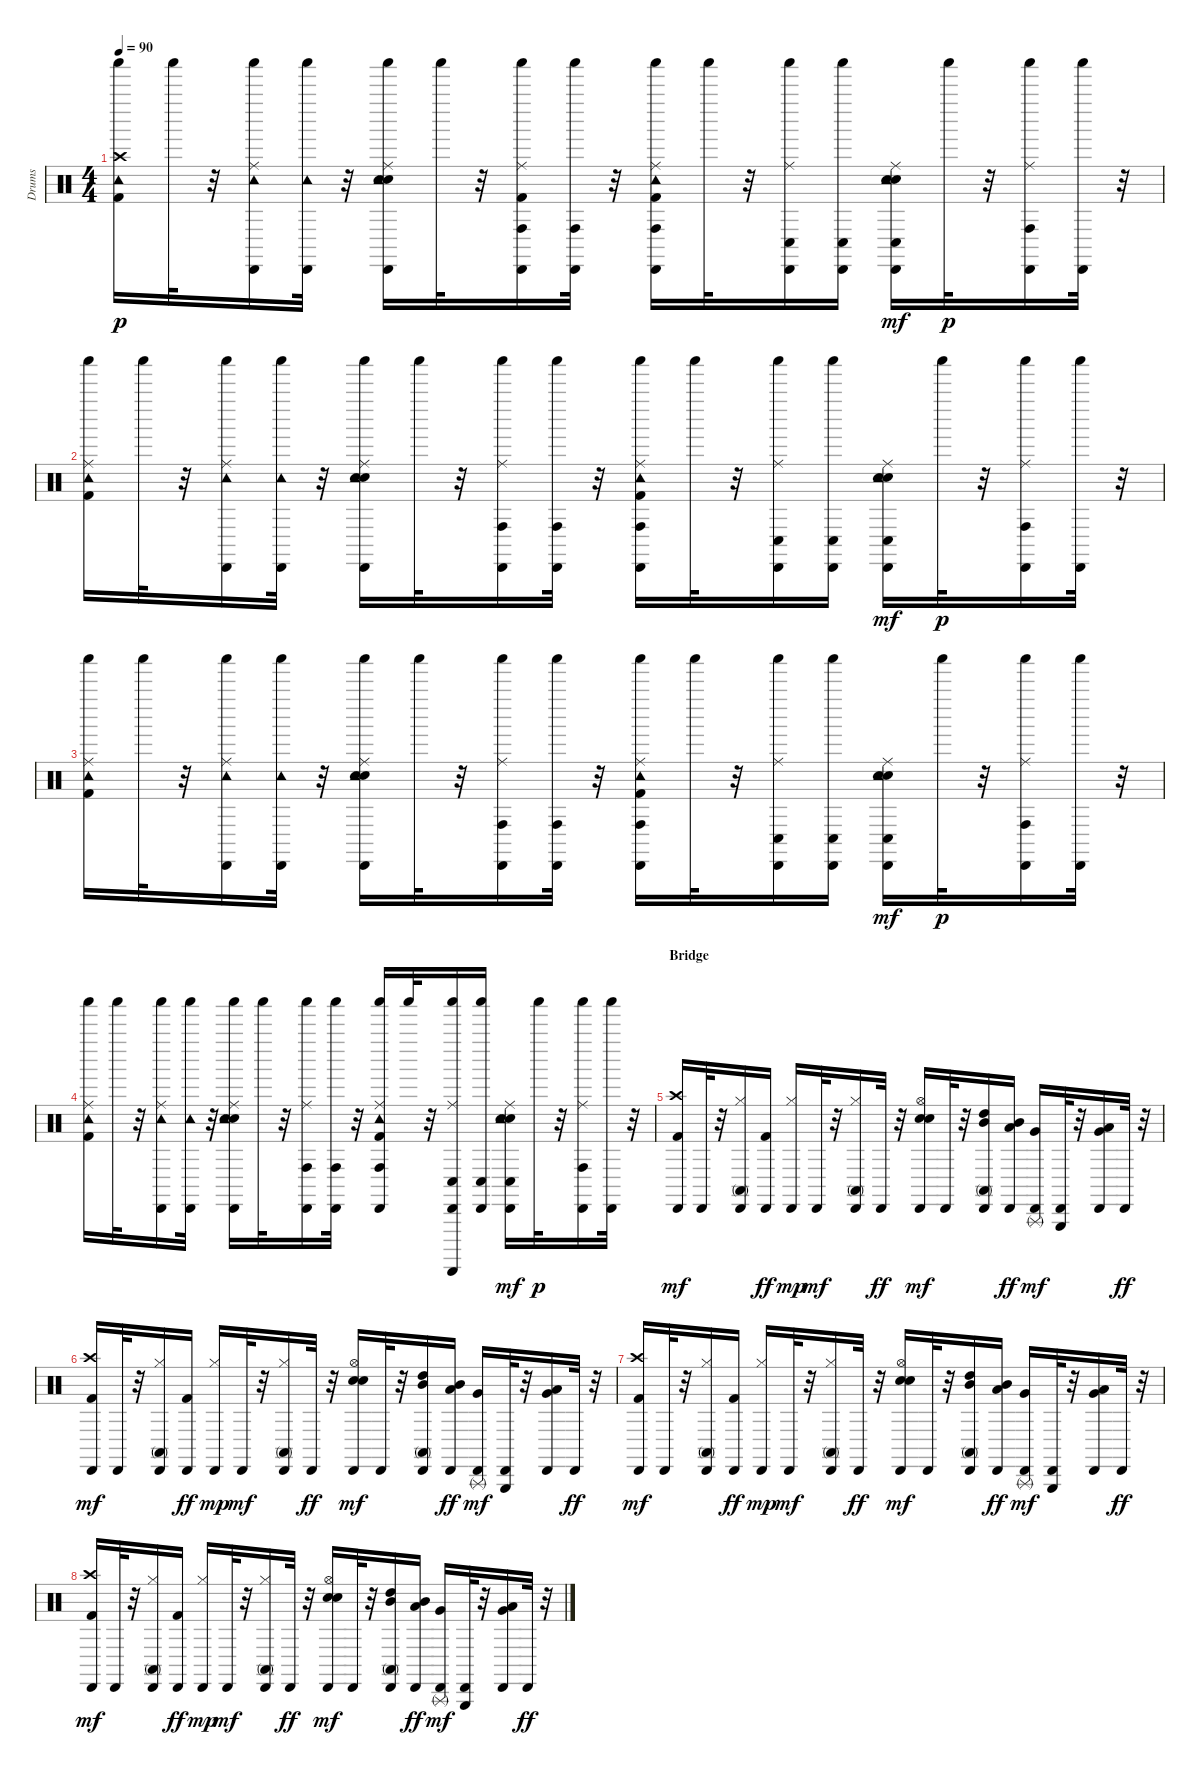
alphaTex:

\track ("Drums" "Drums") {instrument percussion}
\staff {score}
\articulation defaults
\ts (4 4)
\tempo 90
\clef neutral
\ks c
("Crash high (hit)" "Kick (hit) 2" "Tambourine (hit)" "Shaker (hit)").16{dy p} "Shaker (hit)".32 r.32 ("Ride (middle)" "Tambourine (hit)" "Cabasa (hit)" "Shaker (hit)").16 ("Tambourine (hit)" "Cabasa (hit)" "Shaker (hit)").32 r.32 ("Electric Snare (hit)" "Ride (middle)" "Snare (hit) 2" "Tambourine (hit)" "Cabasa (hit)" "Shaker (hit)").16 "Shaker (hit)".32 r.32 ("Ride (middle)" "Kick (hit) 2" "Cabasa (hit)" "Conga high (hit)" "Shaker (hit)").16 ("Cabasa (hit)" "Conga high (hit)" "Shaker (hit)").32 r.32 ("Ride (middle)" "Kick (hit) 2" "Cabasa (hit)" "Conga high (hit)" "Tambourine (hit)" "Shaker (hit)").16 "Shaker (hit)".32 r.32 ("Ride (middle)" "Cabasa (hit)" "Conga low (hit)" "Shaker (hit)").16 ("Cabasa (hit)" "Conga low (hit)" "Shaker (hit)").16 ("Electric Snare (hit)" "Ride (middle)" "Snare (hit) 2" "Cabasa (hit)" "Conga low (hit)" "Tambourine (hit)").16{dy mf} "Shaker (hit)".32{dy p} r.32 ("Ride (middle)" "Cabasa (hit)" "Conga high (hit)" "Shaker (hit)").16 ("Cabasa (hit)" "Shaker (hit)").32 r.32 |
("Ride (middle)" "Kick (hit) 2" "Tambourine (hit)" "Shaker (hit)").16 "Shaker (hit)".32 r.32 ("Ride (middle)" "Tambourine (hit)" "Cabasa (hit)" "Shaker (hit)").16 ("Tambourine (hit)" "Cabasa (hit)" "Shaker (hit)").32 r.32 ("Electric Snare (hit)" "Ride (middle)" "Snare (hit) 2" "Tambourine (hit)" "Cabasa (hit)" "Shaker (hit)").16 "Shaker (hit)".32 r.32 ("Ride (middle)" "Cabasa (hit)" "Conga high (hit)" "Shaker (hit)").16 ("Cabasa (hit)" "Conga high (hit)" "Shaker (hit)").32 r.32 ("Ride (middle)" "Kick (hit) 2" "Cabasa (hit)" "Conga high (hit)" "Tambourine (hit)" "Shaker (hit)").16 "Shaker (hit)".32 r.32 ("Ride (middle)" "Cabasa (hit)" "Conga low (hit)" "Shaker (hit)").16 ("Cabasa (hit)" "Conga low (hit)" "Shaker (hit)").16 ("Electric Snare (hit)" "Ride (middle)" "Snare (hit) 2" "Cabasa (hit)" "Conga low (hit)" "Tambourine (hit)").16{dy mf} "Shaker (hit)".32{dy p} r.32 ("Ride (middle)" "Cabasa (hit)" "Conga high (hit)" "Shaker (hit)").16 ("Cabasa (hit)" "Shaker (hit)").32 r.32 |
("Ride (middle)" "Kick (hit) 2" "Tambourine (hit)" "Shaker (hit)").16 "Shaker (hit)".32 r.32 ("Ride (middle)" "Tambourine (hit)" "Cabasa (hit)" "Shaker (hit)").16 ("Tambourine (hit)" "Cabasa (hit)" "Shaker (hit)").32 r.32 ("Electric Snare (hit)" "Ride (middle)" "Snare (hit) 2" "Tambourine (hit)" "Cabasa (hit)" "Shaker (hit)").16 "Shaker (hit)".32 r.32 ("Ride (middle)" "Cabasa (hit)" "Conga high (hit)" "Shaker (hit)").16 ("Cabasa (hit)" "Conga high (hit)" "Shaker (hit)").32 r.32 ("Ride (middle)" "Kick (hit) 2" "Cabasa (hit)" "Conga high (hit)" "Tambourine (hit)" "Shaker (hit)").16 "Shaker (hit)".32 r.32 ("Ride (middle)" "Cabasa (hit)" "Conga low (hit)" "Shaker (hit)").16 ("Cabasa (hit)" "Conga low (hit)" "Shaker (hit)").16 ("Electric Snare (hit)" "Ride (middle)" "Snare (hit) 2" "Cabasa (hit)" "Conga low (hit)" "Tambourine (hit)").16{dy mf} "Shaker (hit)".32{dy p} r.32 ("Ride (middle)" "Cabasa (hit)" "Conga high (hit)" "Shaker (hit)").16 ("Cabasa (hit)" "Shaker (hit)").32 r.32 |
("Ride (middle)" "Kick (hit) 2" "Tambourine (hit)" "Shaker (hit)").16 "Shaker (hit)".32 r.32 ("Ride (middle)" "Tambourine (hit)" "Cabasa (hit)" "Shaker (hit)").16 ("Tambourine (hit)" "Cabasa (hit)" "Shaker (hit)").32 r.32 ("Electric Snare (hit)" "Ride (middle)" "Snare (hit) 2" "Tambourine (hit)" "Cabasa (hit)" "Shaker (hit)").16 "Shaker (hit)".32 r.32 ("Ride (middle)" "Cabasa (hit)" "Conga high (hit)" "Shaker (hit)").16 ("Cabasa (hit)" "Conga high (hit)" "Shaker (hit)").32 r.32 ("Ride (middle)" "Kick (hit) 2" "Cabasa (hit)" "Conga high (hit)" "Tambourine (hit)" "Shaker (hit)").16 "Shaker (hit)".32 r.32 ("Ride (middle)" "Cabasa (hit)" "Conga low (hit)" "Shaker (hit)" "Guiro (scrap-return)").16 ("Cabasa (hit)" "Conga low (hit)" "Shaker (hit)").16 ("Electric Snare (hit)" "Ride (middle)" "Snare (hit) 2" "Cabasa (hit)" "Conga low (hit)" "Tambourine (hit)").16{dy mf} "Shaker (hit)".32{dy p} r.32 ("Ride (middle)" "Cabasa (hit)" "Conga high (hit)" "Shaker (hit)").16 ("Cabasa (hit)" "Shaker (hit)").32 r.32 |
\section ("" "Bridge")
("Crash high (hit)" "Kick (hit) 2" "Cabasa (hit)").16{dy mf} "Cabasa (hit)".32 r.32 ("Hi-Hat (closed)" "Cabasa (hit)" "Conga high (mute)").16 ("Kick (hit) 2" "Cabasa (hit)").16{dy ff} ("Hi-Hat (closed)" "Cabasa (hit)").16{dy mp} "Cabasa (hit)".32{dy mf} r.32 ("Hi-Hat (closed)" "Cabasa (hit)" "Conga high (mute)").16 "Cabasa (hit)".32{dy ff} r.32 ("Electric Snare (hit)" "Hi-Hat (open)" "Snare (hit) 2" "Cabasa (hit)").16{dy mf} "Cabasa (hit)".32 r.32 ("Mid Tom (hit)" "High Tom (hit)" "Cabasa (hit)" "Conga high (mute)").16 ("Low Tom (hit)" "Mid Tom (hit)" "Cabasa (hit)").16{dy ff} ("Very Low Tom (hit)" "Cabasa (hit)" "Triangle (rnute)").16{dy mf} ("Cabasa (hit)" "Triangle (hit)").32 r.32 ("Low Floor Tom (hit)" "Very Low Tom (hit)" "Cabasa (hit)").16 "Cabasa (hit)".32{dy ff} r.32 |
("Crash high (hit)" "Kick (hit) 2" "Cabasa (hit)").16{dy mf} "Cabasa (hit)".32 r.32 ("Hi-Hat (closed)" "Cabasa (hit)" "Conga high (mute)").16 ("Kick (hit) 2" "Cabasa (hit)").16{dy ff} ("Hi-Hat (closed)" "Cabasa (hit)").16{dy mp} "Cabasa (hit)".32{dy mf} r.32 ("Hi-Hat (closed)" "Cabasa (hit)" "Conga high (mute)").16 "Cabasa (hit)".32{dy ff} r.32 ("Electric Snare (hit)" "Hi-Hat (open)" "Snare (hit) 2" "Cabasa (hit)").16{dy mf} "Cabasa (hit)".32 r.32 ("Mid Tom (hit)" "High Tom (hit)" "Cabasa (hit)" "Conga high (mute)").16 ("Low Tom (hit)" "Mid Tom (hit)" "Cabasa (hit)").16{dy ff} ("Very Low Tom (hit)" "Cabasa (hit)" "Triangle (rnute)").16{dy mf} ("Cabasa (hit)" "Triangle (hit)").32 r.32 ("Low Floor Tom (hit)" "Very Low Tom (hit)" "Cabasa (hit)").16 "Cabasa (hit)".32{dy ff} r.32 |
("Crash high (hit)" "Kick (hit) 2" "Cabasa (hit)").16{dy mf} "Cabasa (hit)".32 r.32 ("Hi-Hat (closed)" "Cabasa (hit)" "Conga high (mute)").16 ("Kick (hit) 2" "Cabasa (hit)").16{dy ff} ("Hi-Hat (closed)" "Cabasa (hit)").16{dy mp} "Cabasa (hit)".32{dy mf} r.32 ("Hi-Hat (closed)" "Cabasa (hit)" "Conga high (mute)").16 "Cabasa (hit)".32{dy ff} r.32 ("Electric Snare (hit)" "Hi-Hat (open)" "Snare (hit) 2" "Cabasa (hit)").16{dy mf} "Cabasa (hit)".32 r.32 ("Mid Tom (hit)" "High Tom (hit)" "Cabasa (hit)" "Conga high (mute)").16 ("Low Tom (hit)" "Mid Tom (hit)" "Cabasa (hit)").16{dy ff} ("Very Low Tom (hit)" "Cabasa (hit)" "Triangle (rnute)").16{dy mf} ("Cabasa (hit)" "Triangle (hit)").32 r.32 ("Low Floor Tom (hit)" "Very Low Tom (hit)" "Cabasa (hit)").16 "Cabasa (hit)".32{dy ff} r.32 |
("Crash high (hit)" "Kick (hit) 2" "Cabasa (hit)").16{dy mf} "Cabasa (hit)".32 r.32 ("Hi-Hat (closed)" "Cabasa (hit)" "Conga high (mute)").16 ("Kick (hit) 2" "Cabasa (hit)").16{dy ff} ("Hi-Hat (closed)" "Cabasa (hit)").16{dy mp} "Cabasa (hit)".32{dy mf} r.32 ("Hi-Hat (closed)" "Cabasa (hit)" "Conga high (mute)").16 "Cabasa (hit)".32{dy ff} r.32 ("Electric Snare (hit)" "Hi-Hat (open)" "Snare (hit) 2" "Cabasa (hit)").16{dy mf} "Cabasa (hit)".32 r.32 ("Mid Tom (hit)" "High Tom (hit)" "Cabasa (hit)" "Conga high (mute)").16 ("Low Tom (hit)" "Mid Tom (hit)" "Cabasa (hit)").16{dy ff} ("Very Low Tom (hit)" "Cabasa (hit)" "Triangle (rnute)").16{dy mf} ("Cabasa (hit)" "Triangle (hit)").32 r.32 ("Low Floor Tom (hit)" "Very Low Tom (hit)" "Cabasa (hit)").16 "Cabasa (hit)".32{dy ff} r.32
